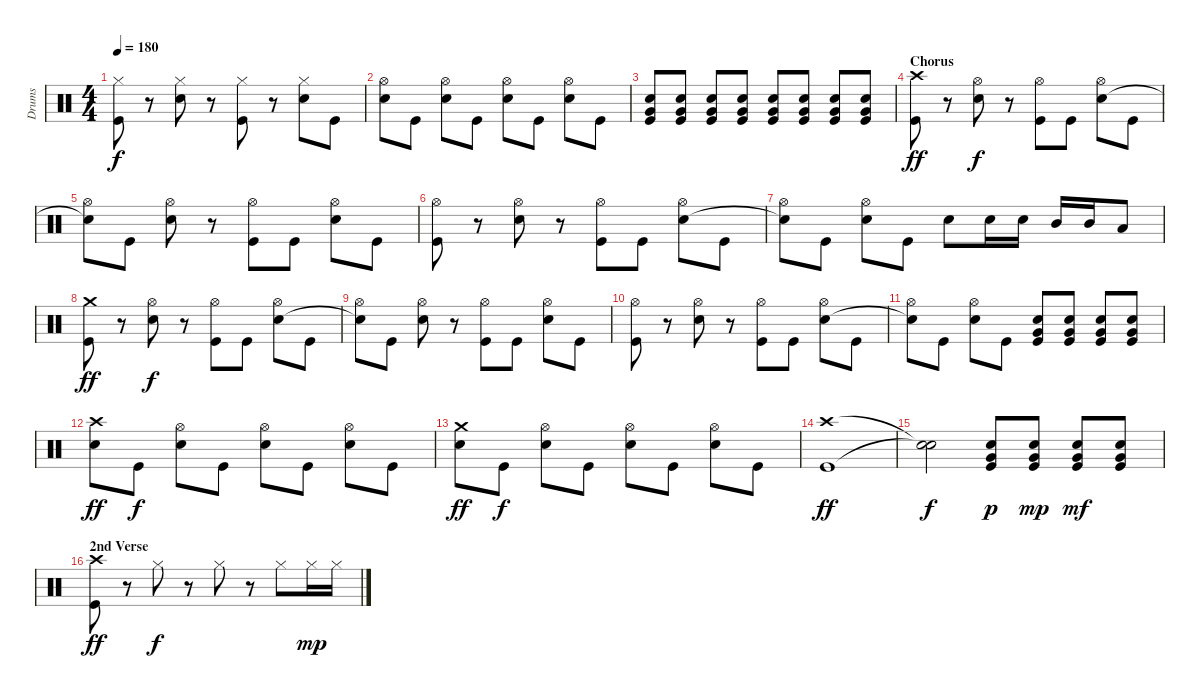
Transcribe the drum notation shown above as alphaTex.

\track ("Drums" "Drums") {instrument percussion}
\staff {score}
\articulation defaults
\ts (4 4)
\tempo 180
\clef neutral
\ks c
("Hi-Hat (closed)" "Kick (hit)").8{dy f} r.8 ("Hi-Hat (closed)" "Snare (hit) 2").8 r.8 ("Hi-Hat (closed)" "Kick (hit)").8 r.8 ("Hi-Hat (closed)" "Snare (hit) 2").8 "Kick (hit)".8 |
("Hi-Hat (open)" "Snare (hit) 2").8 "Kick (hit)".8 ("Hi-Hat (open)" "Snare (hit) 2").8 "Kick (hit)".8 ("Hi-Hat (open)" "Snare (hit) 2").8 "Kick (hit)".8 ("Hi-Hat (open)" "Snare (hit) 2").8 "Kick (hit)".8 |
("Very Low Tom (hit)" "Snare (hit) 2" "Kick (hit)").8 ("Very Low Tom (hit)" "Snare (hit) 2" "Kick (hit)").8 ("Very Low Tom (hit)" "Snare (hit) 2" "Kick (hit)").8 ("Very Low Tom (hit)" "Snare (hit) 2" "Kick (hit)").8 ("Very Low Tom (hit)" "Snare (hit) 2" "Kick (hit)").8 ("Very Low Tom (hit)" "Snare (hit) 2" "Kick (hit)").8 ("Very Low Tom (hit)" "Snare (hit) 2" "Kick (hit)").8 ("Very Low Tom (hit)" "Snare (hit) 2" "Kick (hit)").8 |
\section ("" "Chorus")
("Crash high (hit)" "Kick (hit)").8{dy ff} r.8 ("Hi-Hat (open)" "Snare (hit) 2").8{dy f} r.8 ("Hi-Hat (open)" "Kick (hit)").8 "Kick (hit)".8 ("Hi-Hat (open)" "Snare (hit) 2").8 "Kick (hit)".8 |
("Hi-Hat (open)" "Snare (hit)"{t}).8 "Kick (hit)".8 ("Hi-Hat (open)" "Snare (hit) 2").8 r.8 ("Hi-Hat (open)" "Kick (hit)").8 "Kick (hit)".8 ("Hi-Hat (open)" "Snare (hit) 2").8 "Kick (hit)".8 |
("Hi-Hat (open)" "Kick (hit)").8 r.8 ("Hi-Hat (open)" "Snare (hit) 2").8 r.8 ("Hi-Hat (open)" "Kick (hit)").8 "Kick (hit)".8 ("Hi-Hat (open)" "Snare (hit) 2").8 "Kick (hit)".8 |
("Hi-Hat (open)" "Snare (hit)"{t}).8 "Kick (hit)".8 ("Hi-Hat (open)" "Snare (hit) 2").8 "Kick (hit)".8 "Snare (hit) 2".8 "Snare (hit) 2".16 "Snare (hit) 2".16 "Mid Tom (hit)".16 "Mid Tom (hit)".16 "Low Tom (hit)".8 |
("Crash medium (hit)" "Kick (hit)").8{dy ff} r.8 ("Hi-Hat (open)" "Snare (hit) 2").8{dy f} r.8 ("Hi-Hat (open)" "Kick (hit)").8 "Kick (hit)".8 ("Hi-Hat (open)" "Snare (hit) 2").8 "Kick (hit)".8 |
("Hi-Hat (open)" "Snare (hit)"{t}).8 "Kick (hit)".8 ("Hi-Hat (open)" "Snare (hit) 2").8 r.8 ("Hi-Hat (open)" "Kick (hit)").8 "Kick (hit)".8 ("Hi-Hat (open)" "Snare (hit) 2").8 "Kick (hit)".8 |
("Hi-Hat (open)" "Kick (hit)").8 r.8 ("Hi-Hat (open)" "Snare (hit) 2").8 r.8 ("Hi-Hat (open)" "Kick (hit)").8 "Kick (hit)".8 ("Hi-Hat (open)" "Snare (hit) 2").8 "Kick (hit)".8 |
("Hi-Hat (open)" "Snare (hit)"{t}).8 "Kick (hit)".8 ("Hi-Hat (open)" "Snare (hit) 2").8 "Kick (hit)".8 ("Very Low Tom (hit)" "Snare (hit) 2" "Kick (hit)").8 ("Very Low Tom (hit)" "Snare (hit) 2" "Kick (hit)").8 ("Very Low Tom (hit)" "Snare (hit) 2" "Kick (hit)").8 ("Very Low Tom (hit)" "Snare (hit) 2" "Kick (hit)").8 |
("Crash high (hit)" "Snare (hit) 2").8{dy ff} "Kick (hit)".8{dy f} ("Hi-Hat (open)" "Snare (hit) 2").8 "Kick (hit)".8 ("Hi-Hat (open)" "Snare (hit) 2").8 "Kick (hit)".8 ("Hi-Hat (open)" "Snare (hit) 2").8 "Kick (hit)".8 |
("Crash medium (hit)" "Snare (hit) 2").8{dy ff} "Kick (hit)".8{dy f} ("Hi-Hat (open)" "Snare (hit) 2").8 "Kick (hit)".8 ("Hi-Hat (open)" "Snare (hit) 2").8 "Kick (hit)".8 ("Hi-Hat (open)" "Snare (hit) 2").8 "Kick (hit)".8 |
("Crash high (hit)" "Kick (hit)").1{dy ff} |
("Snare (hit)"{t} "Snare (hit)"{t}).2{dy f} ("Very Low Tom (hit)" "Snare (hit) 2" "Kick (hit)").8{dy p} ("Very Low Tom (hit)" "Snare (hit) 2" "Kick (hit)").8{dy mp} ("Very Low Tom (hit)" "Snare (hit) 2" "Kick (hit)").8{dy mf} ("Very Low Tom (hit)" "Snare (hit) 2" "Kick (hit)").8 |
\section ("" "2nd Verse")
("Crash high (hit)" "Kick (hit)").8{dy ff} r.8 "Hi-Hat (closed)".8{dy f} r.8 "Hi-Hat (closed)".8 r.8 "Hi-Hat (closed)".8 "Hi-Hat (closed)".16{dy mp} "Hi-Hat (closed)".16
